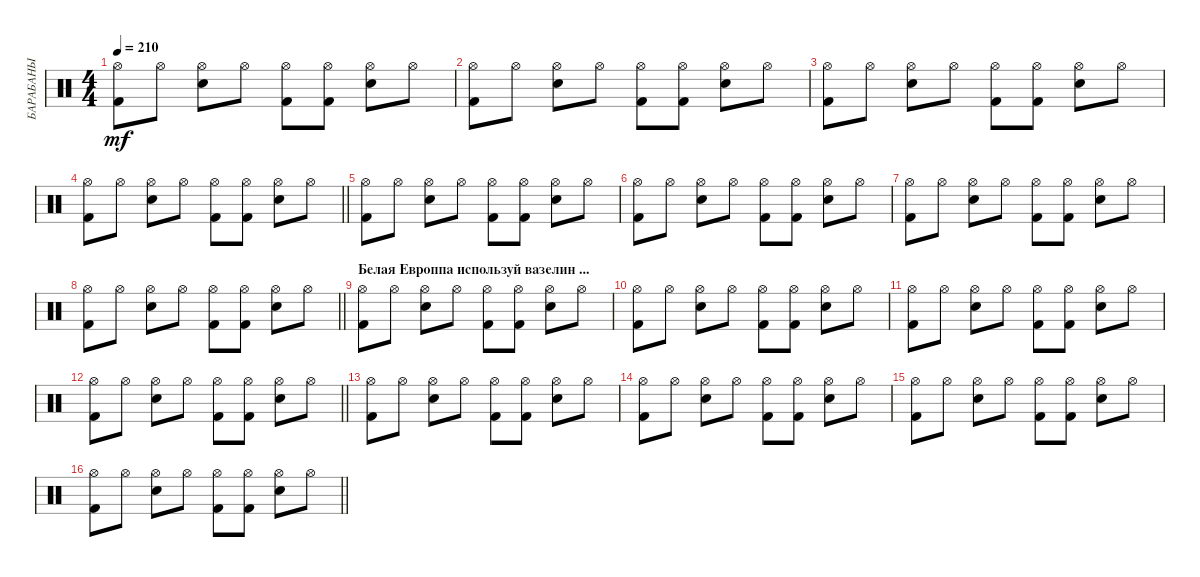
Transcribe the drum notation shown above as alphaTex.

\track ("БАРАБАНЫ" "БАРАБАНЫ") {instrument percussion}
\staff {score}
\articulation defaults
\ts (4 4)
\tempo 210
\clef neutral
\ks c
("Hi-Hat (open)" "Kick (hit) 2").8{dy mf} "Hi-Hat (open)".8 ("Hi-Hat (open)" "Snare (hit) 2").8 "Hi-Hat (open)".8 ("Hi-Hat (open)" "Kick (hit) 2").8 ("Hi-Hat (open)" "Kick (hit) 2").8 ("Hi-Hat (open)" "Snare (hit) 2").8 "Hi-Hat (open)".8 |
("Hi-Hat (open)" "Kick (hit) 2").8 "Hi-Hat (open)".8 ("Hi-Hat (open)" "Snare (hit) 2").8 "Hi-Hat (open)".8 ("Hi-Hat (open)" "Kick (hit) 2").8 ("Hi-Hat (open)" "Kick (hit) 2").8 ("Hi-Hat (open)" "Snare (hit) 2").8 "Hi-Hat (open)".8 |
("Hi-Hat (open)" "Kick (hit) 2").8 "Hi-Hat (open)".8 ("Hi-Hat (open)" "Snare (hit) 2").8 "Hi-Hat (open)".8 ("Hi-Hat (open)" "Kick (hit) 2").8 ("Hi-Hat (open)" "Kick (hit) 2").8 ("Hi-Hat (open)" "Snare (hit) 2").8 "Hi-Hat (open)".8 |
\barLineRight lightlight
("Hi-Hat (open)" "Kick (hit) 2").8 "Hi-Hat (open)".8 ("Hi-Hat (open)" "Snare (hit) 2").8 "Hi-Hat (open)".8 ("Hi-Hat (open)" "Kick (hit) 2").8 ("Hi-Hat (open)" "Kick (hit) 2").8 ("Hi-Hat (open)" "Snare (hit) 2").8 "Hi-Hat (open)".8 |
("Hi-Hat (open)" "Kick (hit) 2").8 "Hi-Hat (open)".8 ("Hi-Hat (open)" "Snare (hit) 2").8 "Hi-Hat (open)".8 ("Hi-Hat (open)" "Kick (hit) 2").8 ("Hi-Hat (open)" "Kick (hit) 2").8 ("Hi-Hat (open)" "Snare (hit) 2").8 "Hi-Hat (open)".8 |
("Hi-Hat (open)" "Kick (hit) 2").8 "Hi-Hat (open)".8 ("Hi-Hat (open)" "Snare (hit) 2").8 "Hi-Hat (open)".8 ("Hi-Hat (open)" "Kick (hit) 2").8 ("Hi-Hat (open)" "Kick (hit) 2").8 ("Hi-Hat (open)" "Snare (hit) 2").8 "Hi-Hat (open)".8 |
("Hi-Hat (open)" "Kick (hit) 2").8 "Hi-Hat (open)".8 ("Hi-Hat (open)" "Snare (hit) 2").8 "Hi-Hat (open)".8 ("Hi-Hat (open)" "Kick (hit) 2").8 ("Hi-Hat (open)" "Kick (hit) 2").8 ("Hi-Hat (open)" "Snare (hit) 2").8 "Hi-Hat (open)".8 |
\barLineRight lightlight
("Hi-Hat (open)" "Kick (hit) 2").8 "Hi-Hat (open)".8 ("Hi-Hat (open)" "Snare (hit) 2").8 "Hi-Hat (open)".8 ("Hi-Hat (open)" "Kick (hit) 2").8 ("Hi-Hat (open)" "Kick (hit) 2").8 ("Hi-Hat (open)" "Snare (hit) 2").8 "Hi-Hat (open)".8 |
\section ("" "Белая Европпа используй вазелин ...")
("Hi-Hat (open)" "Kick (hit) 2").8 "Hi-Hat (open)".8 ("Hi-Hat (open)" "Snare (hit) 2").8 "Hi-Hat (open)".8 ("Hi-Hat (open)" "Kick (hit) 2").8 ("Hi-Hat (open)" "Kick (hit) 2").8 ("Hi-Hat (open)" "Snare (hit) 2").8 "Hi-Hat (open)".8 |
("Hi-Hat (open)" "Kick (hit) 2").8 "Hi-Hat (open)".8 ("Hi-Hat (open)" "Snare (hit) 2").8 "Hi-Hat (open)".8 ("Hi-Hat (open)" "Kick (hit) 2").8 ("Hi-Hat (open)" "Kick (hit) 2").8 ("Hi-Hat (open)" "Snare (hit) 2").8 "Hi-Hat (open)".8 |
("Hi-Hat (open)" "Kick (hit) 2").8 "Hi-Hat (open)".8 ("Hi-Hat (open)" "Snare (hit) 2").8 "Hi-Hat (open)".8 ("Hi-Hat (open)" "Kick (hit) 2").8 ("Hi-Hat (open)" "Kick (hit) 2").8 ("Hi-Hat (open)" "Snare (hit) 2").8 "Hi-Hat (open)".8 |
\barLineRight lightlight
("Hi-Hat (open)" "Kick (hit) 2").8 "Hi-Hat (open)".8 ("Hi-Hat (open)" "Snare (hit) 2").8 "Hi-Hat (open)".8 ("Hi-Hat (open)" "Kick (hit) 2").8 ("Hi-Hat (open)" "Kick (hit) 2").8 ("Hi-Hat (open)" "Snare (hit) 2").8 "Hi-Hat (open)".8 |
("Hi-Hat (open)" "Kick (hit) 2").8 "Hi-Hat (open)".8 ("Hi-Hat (open)" "Snare (hit) 2").8 "Hi-Hat (open)".8 ("Hi-Hat (open)" "Kick (hit) 2").8 ("Hi-Hat (open)" "Kick (hit) 2").8 ("Hi-Hat (open)" "Snare (hit) 2").8 "Hi-Hat (open)".8 |
("Hi-Hat (open)" "Kick (hit) 2").8 "Hi-Hat (open)".8 ("Hi-Hat (open)" "Snare (hit) 2").8 "Hi-Hat (open)".8 ("Hi-Hat (open)" "Kick (hit) 2").8 ("Hi-Hat (open)" "Kick (hit) 2").8 ("Hi-Hat (open)" "Snare (hit) 2").8 "Hi-Hat (open)".8 |
("Hi-Hat (open)" "Kick (hit) 2").8 "Hi-Hat (open)".8 ("Hi-Hat (open)" "Snare (hit) 2").8 "Hi-Hat (open)".8 ("Hi-Hat (open)" "Kick (hit) 2").8 ("Hi-Hat (open)" "Kick (hit) 2").8 ("Hi-Hat (open)" "Snare (hit) 2").8 "Hi-Hat (open)".8 |
\barLineRight lightlight
("Hi-Hat (open)" "Kick (hit) 2").8 "Hi-Hat (open)".8 ("Hi-Hat (open)" "Snare (hit) 2").8 "Hi-Hat (open)".8 ("Hi-Hat (open)" "Kick (hit) 2").8 ("Hi-Hat (open)" "Kick (hit) 2").8 ("Hi-Hat (open)" "Snare (hit) 2").8 "Hi-Hat (open)".8
